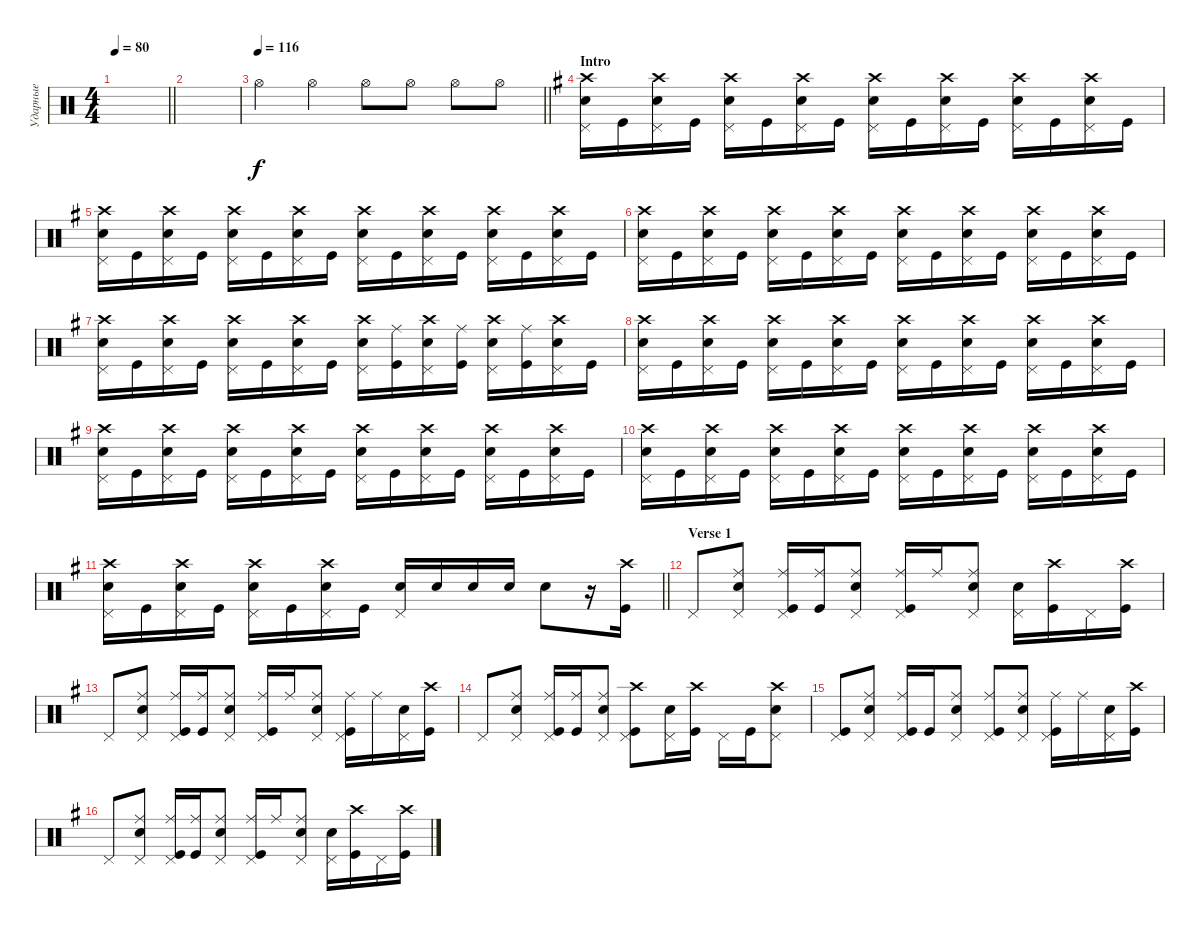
\track ("Ударные" "Ударные") {instrument percussion}
\staff {score}
\articulation defaults
\ts (4 4)
\tempo 80
\clef neutral
\barLineRight lightlight
\ks c
|
|
\tempo 116
\barLineRight lightlight "Hi-Hat (open)".4 "Hi-Hat (open)".4 "Hi-Hat (open)".8 "Hi-Hat (open)".8 "Hi-Hat (open)".8 "Hi-Hat (open)".8
|
\section ("" "Intro")
\ks eminor
("Pedal Hi-Hat (hit)" "Snare (hit) 2" "Crash high (hit)").16 "Kick (hit)".16 ("Pedal Hi-Hat (hit)" "Snare (hit) 2" "Crash high (hit)").16 "Kick (hit)".16 ("Pedal Hi-Hat (hit)" "Snare (hit) 2" "Crash high (hit)").16 "Kick (hit)".16 ("Pedal Hi-Hat (hit)" "Snare (hit) 2" "Crash high (hit)").16 "Kick (hit)".16 ("Pedal Hi-Hat (hit)" "Snare (hit) 2" "Crash high (hit)").16 "Kick (hit)".16 ("Pedal Hi-Hat (hit)" "Snare (hit) 2" "Crash high (hit)").16 "Kick (hit)".16 ("Pedal Hi-Hat (hit)" "Snare (hit) 2" "Crash high (hit)").16 "Kick (hit)".16 ("Pedal Hi-Hat (hit)" "Snare (hit) 2" "Crash high (hit)").16 "Kick (hit)".16 |
("Pedal Hi-Hat (hit)" "Snare (hit) 2" "Crash high (hit)").16 "Kick (hit)".16 ("Pedal Hi-Hat (hit)" "Snare (hit) 2" "Crash high (hit)").16 "Kick (hit)".16 ("Pedal Hi-Hat (hit)" "Snare (hit) 2" "Crash high (hit)").16 "Kick (hit)".16 ("Pedal Hi-Hat (hit)" "Snare (hit) 2" "Crash high (hit)").16 "Kick (hit)".16 ("Pedal Hi-Hat (hit)" "Snare (hit) 2" "Crash high (hit)").16 "Kick (hit)".16 ("Pedal Hi-Hat (hit)" "Snare (hit) 2" "Crash high (hit)").16 "Kick (hit)".16 ("Pedal Hi-Hat (hit)" "Snare (hit) 2" "Crash high (hit)").16 "Kick (hit)".16 ("Pedal Hi-Hat (hit)" "Snare (hit) 2" "Crash high (hit)").16 "Kick (hit)".16 |
("Pedal Hi-Hat (hit)" "Snare (hit) 2" "Crash high (hit)").16 "Kick (hit)".16 ("Pedal Hi-Hat (hit)" "Snare (hit) 2" "Crash high (hit)").16 "Kick (hit)".16 ("Pedal Hi-Hat (hit)" "Snare (hit) 2" "Crash high (hit)").16 "Kick (hit)".16 ("Pedal Hi-Hat (hit)" "Snare (hit) 2" "Crash high (hit)").16 "Kick (hit)".16 ("Pedal Hi-Hat (hit)" "Snare (hit) 2" "Crash high (hit)").16 "Kick (hit)".16 ("Pedal Hi-Hat (hit)" "Snare (hit) 2" "Crash high (hit)").16 "Kick (hit)".16 ("Pedal Hi-Hat (hit)" "Snare (hit) 2" "Crash high (hit)").16 "Kick (hit)".16 ("Pedal Hi-Hat (hit)" "Snare (hit) 2" "Crash high (hit)").16 "Kick (hit)".16 |
("Pedal Hi-Hat (hit)" "Snare (hit) 2" "Crash high (hit)").16 "Kick (hit)".16 ("Pedal Hi-Hat (hit)" "Snare (hit) 2" "Crash high (hit)").16 "Kick (hit)".16 ("Pedal Hi-Hat (hit)" "Snare (hit) 2" "Crash high (hit)").16 "Kick (hit)".16 ("Pedal Hi-Hat (hit)" "Snare (hit) 2" "Crash high (hit)").16 "Kick (hit)".16 ("Pedal Hi-Hat (hit)" "Snare (hit) 2" "Crash high (hit)").16 ("Kick (hit)" "Ride (middle)").16 ("Pedal Hi-Hat (hit)" "Snare (hit) 2" "Crash high (hit)").16 ("Kick (hit)" "Ride (middle)").16 ("Pedal Hi-Hat (hit)" "Snare (hit) 2" "Crash high (hit)").16 ("Kick (hit)" "Ride (middle)").16 ("Pedal Hi-Hat (hit)" "Snare (hit) 2" "Crash high (hit)").16 "Kick (hit)".16 |
("Pedal Hi-Hat (hit)" "Snare (hit) 2" "Crash high (hit)").16 "Kick (hit)".16 ("Pedal Hi-Hat (hit)" "Snare (hit) 2" "Crash high (hit)").16 "Kick (hit)".16 ("Pedal Hi-Hat (hit)" "Snare (hit) 2" "Crash high (hit)").16 "Kick (hit)".16 ("Pedal Hi-Hat (hit)" "Snare (hit) 2" "Crash high (hit)").16 "Kick (hit)".16 ("Pedal Hi-Hat (hit)" "Snare (hit) 2" "Crash high (hit)").16 "Kick (hit)".16 ("Pedal Hi-Hat (hit)" "Snare (hit) 2" "Crash high (hit)").16 "Kick (hit)".16 ("Pedal Hi-Hat (hit)" "Snare (hit) 2" "Crash high (hit)").16 "Kick (hit)".16 ("Pedal Hi-Hat (hit)" "Snare (hit) 2" "Crash high (hit)").16 "Kick (hit)".16 |
("Pedal Hi-Hat (hit)" "Snare (hit) 2" "Crash high (hit)").16 "Kick (hit)".16 ("Pedal Hi-Hat (hit)" "Snare (hit) 2" "Crash high (hit)").16 "Kick (hit)".16 ("Pedal Hi-Hat (hit)" "Snare (hit) 2" "Crash high (hit)").16 "Kick (hit)".16 ("Pedal Hi-Hat (hit)" "Snare (hit) 2" "Crash high (hit)").16 "Kick (hit)".16 ("Pedal Hi-Hat (hit)" "Snare (hit) 2" "Crash high (hit)").16 "Kick (hit)".16 ("Pedal Hi-Hat (hit)" "Snare (hit) 2" "Crash high (hit)").16 "Kick (hit)".16 ("Pedal Hi-Hat (hit)" "Snare (hit) 2" "Crash high (hit)").16 "Kick (hit)".16 ("Pedal Hi-Hat (hit)" "Snare (hit) 2" "Crash high (hit)").16 "Kick (hit)".16 |
("Pedal Hi-Hat (hit)" "Snare (hit) 2" "Crash high (hit)").16 "Kick (hit)".16 ("Pedal Hi-Hat (hit)" "Snare (hit) 2" "Crash high (hit)").16 "Kick (hit)".16 ("Pedal Hi-Hat (hit)" "Snare (hit) 2" "Crash high (hit)").16 "Kick (hit)".16 ("Pedal Hi-Hat (hit)" "Snare (hit) 2" "Crash high (hit)").16 "Kick (hit)".16 ("Pedal Hi-Hat (hit)" "Snare (hit) 2" "Crash high (hit)").16 "Kick (hit)".16 ("Pedal Hi-Hat (hit)" "Snare (hit) 2" "Crash high (hit)").16 "Kick (hit)".16 ("Pedal Hi-Hat (hit)" "Snare (hit) 2" "Crash high (hit)").16 "Kick (hit)".16 ("Pedal Hi-Hat (hit)" "Snare (hit) 2" "Crash high (hit)").16 "Kick (hit)".16 |
\barLineRight lightlight
("Pedal Hi-Hat (hit)" "Snare (hit) 2" "Crash high (hit)").16 "Kick (hit)".16 ("Pedal Hi-Hat (hit)" "Snare (hit) 2" "Crash high (hit)").16 "Kick (hit)".16 ("Pedal Hi-Hat (hit)" "Snare (hit) 2" "Crash high (hit)").16 "Kick (hit)".16 ("Pedal Hi-Hat (hit)" "Snare (hit) 2" "Crash high (hit)").16 "Kick (hit)".16 ("Snare (hit) 2" "Pedal Hi-Hat (hit)").16 "Snare (hit) 2".16 "Snare (hit) 2".16 "Snare (hit) 2".16 "Snare (hit) 2".8 r.16 ("Kick (hit)" "Crash high (hit)").16 |
\section ("" "Verse 1")
"Pedal Hi-Hat (hit)".8 ("Snare (hit) 2" "Pedal Hi-Hat (hit)" "Ride (middle)").8 ("Kick (hit)" "Pedal Hi-Hat (hit)" "Ride (middle)").16 ("Kick (hit)" "Ride (middle)").16 ("Snare (hit) 2" "Pedal Hi-Hat (hit)" "Ride (middle)").8 ("Pedal Hi-Hat (hit)" "Kick (hit)" "Ride (middle)").16 "Ride (middle)".16 ("Snare (hit) 2" "Pedal Hi-Hat (hit)" "Ride (middle)").8 ("Snare (hit) 2" "Pedal Hi-Hat (hit)").16 ("Kick (hit)" "Crash high (hit)").16 "Pedal Hi-Hat (hit)".16 ("Kick (hit)" "Crash high (hit)").16 |
"Pedal Hi-Hat (hit)".8 ("Snare (hit) 2" "Pedal Hi-Hat (hit)" "Ride (middle)").8 ("Kick (hit)" "Pedal Hi-Hat (hit)" "Ride (middle)").16 ("Kick (hit)" "Ride (middle)").16 ("Snare (hit) 2" "Pedal Hi-Hat (hit)" "Ride (middle)").8 ("Kick (hit)" "Pedal Hi-Hat (hit)" "Ride (middle)").16 "Ride (middle)".16 ("Snare (hit) 2" "Pedal Hi-Hat (hit)" "Ride (middle)").8 ("Kick (hit)" "Ride (middle)" "Pedal Hi-Hat (hit)").16 "Ride (middle)".16 ("Snare (hit) 2" "Pedal Hi-Hat (hit)").16 ("Kick (hit)" "Crash high (hit)").16 |
"Pedal Hi-Hat (hit)".8 ("Snare (hit) 2" "Ride (middle)" "Pedal Hi-Hat (hit)").8 ("Kick (hit)" "Ride (middle)" "Pedal Hi-Hat (hit)").16 ("Kick (hit)" "Ride (middle)").16 ("Snare (hit) 2" "Ride (middle)" "Pedal Hi-Hat (hit)").8 ("Kick (hit)" "Crash high (hit)" "Pedal Hi-Hat (hit)").8 ("Snare (hit) 2" "Pedal Hi-Hat (hit)").16 ("Kick (hit)" "Crash high (hit)").16 "Pedal Hi-Hat (hit)".16 "Kick (hit)".16 ("Snare (hit) 2" "Crash high (hit)" "Pedal Hi-Hat (hit)").8 |
("Kick (hit)" "Pedal Hi-Hat (hit)").8 ("Snare (hit) 2" "Pedal Hi-Hat (hit)" "Ride (middle)").8 ("Kick (hit)" "Pedal Hi-Hat (hit)" "Ride (middle)").16 "Kick (hit)".16 ("Snare (hit) 2" "Pedal Hi-Hat (hit)" "Ride (middle)").8 ("Kick (hit)" "Pedal Hi-Hat (hit)" "Ride (middle)").8{bd 120} ("Snare (hit) 2" "Pedal Hi-Hat (hit)" "Ride (middle)").8 ("Kick (hit)" "Pedal Hi-Hat (hit)" "Ride (middle)").16{bd 120} "Ride (middle)".16 ("Snare (hit) 2" "Pedal Hi-Hat (hit)").16 ("Kick (hit)" "Crash high (hit)").16 |
"Pedal Hi-Hat (hit)".8 ("Snare (hit) 2" "Pedal Hi-Hat (hit)" "Ride (middle)").8 ("Kick (hit)" "Pedal Hi-Hat (hit)" "Ride (middle)").16 ("Kick (hit)" "Ride (middle)").16 ("Snare (hit) 2" "Pedal Hi-Hat (hit)" "Ride (middle)").8 ("Pedal Hi-Hat (hit)" "Kick (hit)" "Ride (middle)").16 "Ride (middle)".16 ("Snare (hit) 2" "Pedal Hi-Hat (hit)" "Ride (middle)").8 ("Snare (hit) 2" "Pedal Hi-Hat (hit)").16 ("Kick (hit)" "Crash high (hit)").16 "Pedal Hi-Hat (hit)".16 ("Kick (hit)" "Crash high (hit)").16
